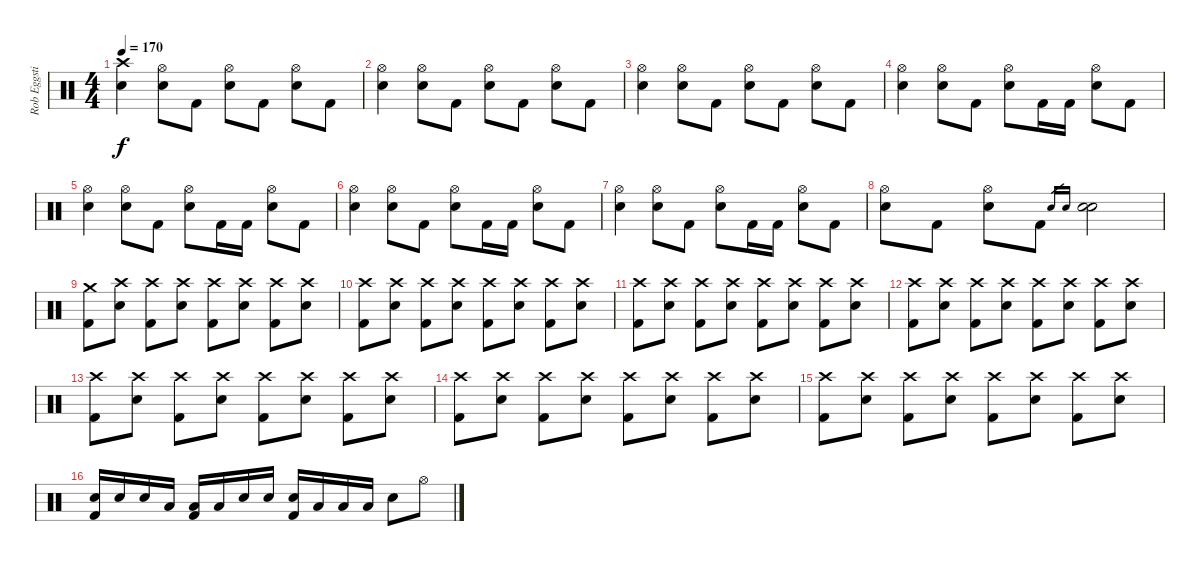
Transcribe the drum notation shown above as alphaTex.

\track ("Rob Eggstick" "Rob Eggsti") {instrument percussion}
\staff {score}
\articulation defaults
\ts (4 4)
\tempo 170
\clef neutral
\ks c
("Crash high (hit)" "Electric Snare (hit)").4{dy f} ("Hi-Hat (open)" "Electric Snare (hit)").8 "Kick (hit) 2".8 ("Hi-Hat (open)" "Electric Snare (hit)").8 "Kick (hit) 2".8 ("Hi-Hat (open)" "Electric Snare (hit)").8 "Kick (hit) 2".8 |
("Hi-Hat (open)" "Electric Snare (hit)").4 ("Hi-Hat (open)" "Electric Snare (hit)").8 "Kick (hit) 2".8 ("Hi-Hat (open)" "Electric Snare (hit)").8 "Kick (hit) 2".8 ("Hi-Hat (open)" "Electric Snare (hit)").8 "Kick (hit) 2".8 |
("Hi-Hat (open)" "Electric Snare (hit)").4 ("Hi-Hat (open)" "Electric Snare (hit)").8 "Kick (hit) 2".8 ("Hi-Hat (open)" "Electric Snare (hit)").8 "Kick (hit) 2".8 ("Hi-Hat (open)" "Electric Snare (hit)").8 "Kick (hit) 2".8 |
("Hi-Hat (open)" "Electric Snare (hit)").4 ("Hi-Hat (open)" "Electric Snare (hit)").8 "Kick (hit) 2".8 ("Hi-Hat (open)" "Electric Snare (hit)").8 "Kick (hit) 2".16 "Kick (hit) 2".16 ("Hi-Hat (open)" "Electric Snare (hit)").8 "Kick (hit) 2".8 |
("Hi-Hat (open)" "Electric Snare (hit)").4 ("Hi-Hat (open)" "Electric Snare (hit)").8 "Kick (hit) 2".8 ("Hi-Hat (open)" "Electric Snare (hit)").8 "Kick (hit) 2".16 "Kick (hit) 2".16 ("Hi-Hat (open)" "Electric Snare (hit)").8 "Kick (hit) 2".8 |
("Hi-Hat (open)" "Electric Snare (hit)").4 ("Hi-Hat (open)" "Electric Snare (hit)").8 "Kick (hit) 2".8 ("Hi-Hat (open)" "Electric Snare (hit)").8 "Kick (hit) 2".16 "Kick (hit) 2".16 ("Hi-Hat (open)" "Electric Snare (hit)").8 "Kick (hit) 2".8 |
("Hi-Hat (open)" "Electric Snare (hit)").4 ("Hi-Hat (open)" "Electric Snare (hit)").8 "Kick (hit) 2".8 ("Hi-Hat (open)" "Electric Snare (hit)").8 "Kick (hit) 2".16 "Kick (hit) 2".16 ("Hi-Hat (open)" "Electric Snare (hit)").8 "Kick (hit) 2".8 |
("Hi-Hat (open)" "Electric Snare (hit)").8 "Kick (hit) 2".8 ("Hi-Hat (open)" "Electric Snare (hit)").8 "Kick (hit) 2".8 "Electric Snare (hit)".16{gr} "Electric Snare (hit)".16{gr} ("Electric Snare (hit)" "Electric Snare (hit)").2 |
("Crash medium (hit)" "Kick (hit) 2").8 ("Crash high (hit)" "Electric Snare (hit)").8 ("Crash high (hit)" "Kick (hit) 2").8 ("Crash high (hit)" "Electric Snare (hit)").8 ("Crash high (hit)" "Kick (hit) 2").8 ("Crash high (hit)" "Electric Snare (hit)").8 ("Crash high (hit)" "Kick (hit) 2").8 ("Crash high (hit)" "Electric Snare (hit)").8 |
("Crash high (hit)" "Kick (hit) 2").8 ("Crash high (hit)" "Electric Snare (hit)").8 ("Crash high (hit)" "Kick (hit) 2").8 ("Crash high (hit)" "Electric Snare (hit)").8 ("Crash high (hit)" "Kick (hit) 2").8 ("Crash high (hit)" "Electric Snare (hit)").8 ("Crash high (hit)" "Kick (hit) 2").8 ("Crash high (hit)" "Electric Snare (hit)").8 |
("Crash high (hit)" "Kick (hit) 2").8 ("Crash high (hit)" "Electric Snare (hit)").8 ("Crash high (hit)" "Kick (hit) 2").8 ("Crash high (hit)" "Electric Snare (hit)").8 ("Crash high (hit)" "Kick (hit) 2").8 ("Crash high (hit)" "Electric Snare (hit)").8 ("Crash high (hit)" "Kick (hit) 2").8 ("Crash high (hit)" "Electric Snare (hit)").8 |
("Crash high (hit)" "Kick (hit) 2").8 ("Crash high (hit)" "Electric Snare (hit)").8 ("Crash high (hit)" "Kick (hit) 2").8 ("Crash high (hit)" "Electric Snare (hit)").8 ("Crash high (hit)" "Kick (hit) 2").8 ("Crash high (hit)" "Electric Snare (hit)").8 ("Crash high (hit)" "Kick (hit) 2").8 ("Crash high (hit)" "Electric Snare (hit)").8 |
("Crash high (hit)" "Kick (hit) 2").8 ("Crash high (hit)" "Electric Snare (hit)").8 ("Crash high (hit)" "Kick (hit) 2").8 ("Crash high (hit)" "Electric Snare (hit)").8 ("Crash high (hit)" "Kick (hit) 2").8 ("Crash high (hit)" "Electric Snare (hit)").8 ("Crash high (hit)" "Kick (hit) 2").8 ("Crash high (hit)" "Electric Snare (hit)").8 |
("Crash high (hit)" "Kick (hit) 2").8 ("Crash high (hit)" "Electric Snare (hit)").8 ("Crash high (hit)" "Kick (hit) 2").8 ("Crash high (hit)" "Electric Snare (hit)").8 ("Crash high (hit)" "Kick (hit) 2").8 ("Crash high (hit)" "Electric Snare (hit)").8 ("Crash high (hit)" "Kick (hit) 2").8 ("Crash high (hit)" "Electric Snare (hit)").8 |
("Crash high (hit)" "Kick (hit) 2").8 ("Crash high (hit)" "Electric Snare (hit)").8 ("Crash high (hit)" "Kick (hit) 2").8 ("Crash high (hit)" "Electric Snare (hit)").8 ("Crash high (hit)" "Kick (hit) 2").8 ("Crash high (hit)" "Electric Snare (hit)").8 ("Crash high (hit)" "Kick (hit) 2").8 ("Crash high (hit)" "Electric Snare (hit)").8 |
("Electric Snare (hit)" "Kick (hit) 2").16 "Electric Snare (hit)".16 "Electric Snare (hit)".16 "Low Tom (hit)".16 ("Low Tom (hit)" "Kick (hit) 2").16 "Low Tom (hit)".16 "Electric Snare (hit)".16 "Electric Snare (hit)".16 ("Electric Snare (hit)" "Kick (hit) 2").16 "Low Tom (hit)".16 "Low Tom (hit)".16 "Low Tom (hit)".16 "Electric Snare (hit)".8 "Hi-Hat (open)".8
